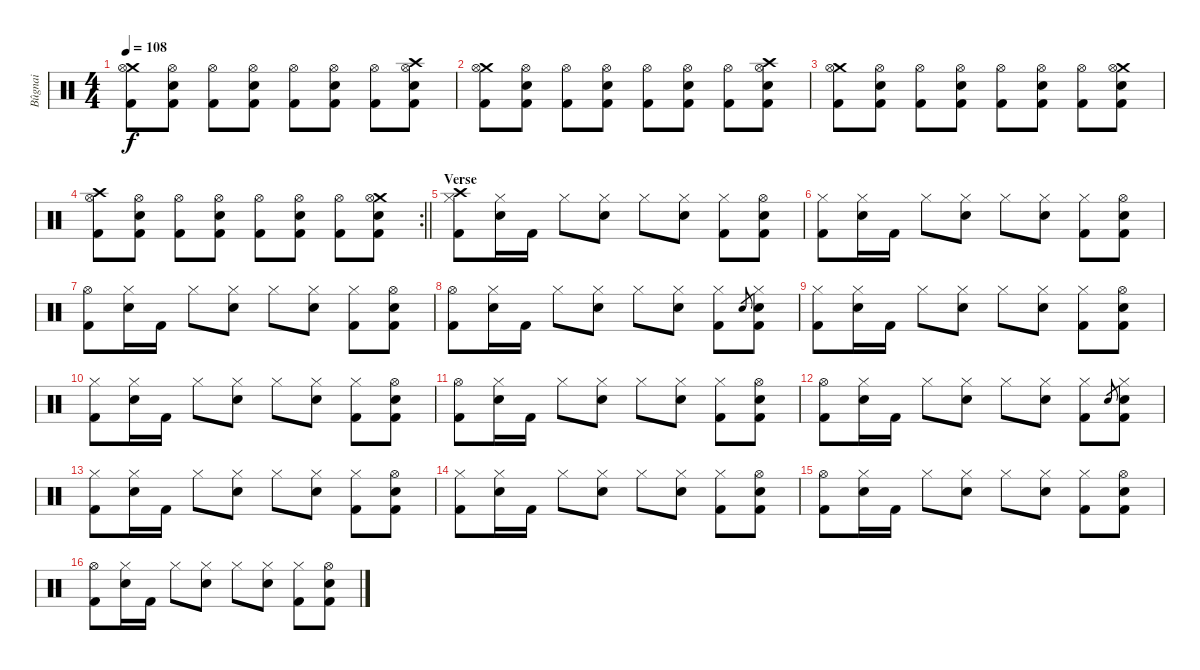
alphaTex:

\track ("Bûgnai" "Bûgnai") {instrument percussion}
\staff {score}
\articulation defaults
\ts (4 4)
\tempo 108
\clef neutral
\ks c
("Crash medium (hit)" "Hi-Hat (open)" "Kick (hit) 2").8{dy f} ("Hi-Hat (open)" "Snare (hit) 2" "Kick (hit) 2").8 ("Hi-Hat (open)" "Kick (hit) 2").8 ("Hi-Hat (open)" "Snare (hit) 2" "Kick (hit) 2").8 ("Hi-Hat (open)" "Kick (hit) 2").8 ("Hi-Hat (open)" "Snare (hit) 2" "Kick (hit) 2").8 ("Hi-Hat (open)" "Kick (hit) 2").8 ("Crash high (hit)" "Hi-Hat (open)" "Snare (hit) 2" "Kick (hit) 2").8 |
("Crash medium (hit)" "Hi-Hat (open)" "Kick (hit) 2").8 ("Hi-Hat (open)" "Snare (hit) 2" "Kick (hit) 2").8 ("Hi-Hat (open)" "Kick (hit) 2").8 ("Hi-Hat (open)" "Snare (hit) 2" "Kick (hit) 2").8 ("Hi-Hat (open)" "Kick (hit) 2").8 ("Hi-Hat (open)" "Snare (hit) 2" "Kick (hit) 2").8 ("Hi-Hat (open)" "Kick (hit) 2").8 ("Crash high (hit)" "Hi-Hat (open)" "Snare (hit) 2" "Kick (hit) 2").8 |
("Crash medium (hit)" "Hi-Hat (open)" "Kick (hit) 2").8 ("Hi-Hat (open)" "Snare (hit) 2" "Kick (hit) 2").8 ("Hi-Hat (open)" "Kick (hit) 2").8 ("Hi-Hat (open)" "Snare (hit) 2" "Kick (hit) 2").8 ("Hi-Hat (open)" "Kick (hit) 2").8 ("Hi-Hat (open)" "Snare (hit) 2" "Kick (hit) 2").8 ("Hi-Hat (open)" "Kick (hit) 2").8 ("Crash medium (hit)" "Hi-Hat (open)" "Snare (hit) 2" "Kick (hit) 2").8 |
\rc 2
\barLineRight lightlight
("Crash high (hit)" "Hi-Hat (open)" "Kick (hit) 2").8 ("Hi-Hat (open)" "Snare (hit) 2" "Kick (hit) 2").8 ("Hi-Hat (open)" "Kick (hit) 2").8 ("Hi-Hat (open)" "Snare (hit) 2" "Kick (hit) 2").8 ("Hi-Hat (open)" "Kick (hit) 2").8 ("Hi-Hat (open)" "Snare (hit) 2" "Kick (hit) 2").8 ("Hi-Hat (open)" "Kick (hit) 2").8 ("Crash medium (hit)" "Hi-Hat (open)" "Snare (hit) 2" "Kick (hit) 2").8 |
\section ("" "Verse")
("Crash high (hit)" "Hi-Hat (closed)" "Kick (hit) 2").8 ("Hi-Hat (closed)" "Snare (hit) 2").16 "Kick (hit) 2".16 "Hi-Hat (closed)".8 ("Hi-Hat (closed)" "Snare (hit) 2").8 "Hi-Hat (closed)".8 ("Hi-Hat (closed)" "Snare (hit) 2").8 ("Hi-Hat (closed)" "Kick (hit) 2").8 ("Hi-Hat (open)" "Snare (hit) 2" "Kick (hit) 2").8 |
("Hi-Hat (closed)" "Kick (hit) 2").8 ("Hi-Hat (closed)" "Snare (hit) 2").16 "Kick (hit) 2".16 "Hi-Hat (closed)".8 ("Hi-Hat (closed)" "Snare (hit) 2").8 "Hi-Hat (closed)".8 ("Hi-Hat (closed)" "Snare (hit) 2").8 ("Hi-Hat (closed)" "Kick (hit) 2").8 ("Hi-Hat (open)" "Snare (hit) 2" "Kick (hit) 2").8 |
("Hi-Hat (open)" "Kick (hit) 2").8 ("Hi-Hat (closed)" "Snare (hit) 2").16 "Kick (hit) 2".16 "Hi-Hat (closed)".8 ("Hi-Hat (closed)" "Snare (hit) 2").8 "Hi-Hat (closed)".8 ("Hi-Hat (closed)" "Snare (hit) 2").8 ("Hi-Hat (closed)" "Kick (hit) 2").8 ("Hi-Hat (open)" "Snare (hit) 2" "Kick (hit) 2").8 |
("Hi-Hat (open)" "Kick (hit) 2").8 ("Hi-Hat (closed)" "Snare (hit) 2").16 "Kick (hit) 2".16 "Hi-Hat (closed)".8 ("Hi-Hat (closed)" "Snare (hit) 2").8 "Hi-Hat (closed)".8 ("Hi-Hat (closed)" "Snare (hit) 2").8 ("Hi-Hat (closed)" "Kick (hit) 2").8 "Snare (hit) 2".8{gr} ("Hi-Hat (closed)" "Snare (hit) 2" "Kick (hit) 2").8 |
("Hi-Hat (closed)" "Kick (hit) 2").8 ("Hi-Hat (closed)" "Snare (hit) 2").16 "Kick (hit) 2".16 "Hi-Hat (closed)".8 ("Hi-Hat (closed)" "Snare (hit) 2").8 "Hi-Hat (closed)".8 ("Hi-Hat (closed)" "Snare (hit) 2").8 ("Hi-Hat (closed)" "Kick (hit) 2").8 ("Hi-Hat (open)" "Snare (hit) 2" "Kick (hit) 2").8 |
("Hi-Hat (closed)" "Kick (hit) 2").8 ("Hi-Hat (closed)" "Snare (hit) 2").16 "Kick (hit) 2".16 "Hi-Hat (closed)".8 ("Hi-Hat (closed)" "Snare (hit) 2").8 "Hi-Hat (closed)".8 ("Hi-Hat (closed)" "Snare (hit) 2").8 ("Hi-Hat (closed)" "Kick (hit) 2").8 ("Hi-Hat (open)" "Snare (hit) 2" "Kick (hit) 2").8 |
("Hi-Hat (open)" "Kick (hit) 2").8 ("Hi-Hat (closed)" "Snare (hit) 2").16 "Kick (hit) 2".16 "Hi-Hat (closed)".8 ("Hi-Hat (closed)" "Snare (hit) 2").8 "Hi-Hat (closed)".8 ("Hi-Hat (closed)" "Snare (hit) 2").8 ("Hi-Hat (closed)" "Kick (hit) 2").8 ("Hi-Hat (open)" "Snare (hit) 2" "Kick (hit) 2").8 |
("Hi-Hat (open)" "Kick (hit) 2").8 ("Hi-Hat (closed)" "Snare (hit) 2").16 "Kick (hit) 2".16 "Hi-Hat (closed)".8 ("Hi-Hat (closed)" "Snare (hit) 2").8 "Hi-Hat (closed)".8 ("Hi-Hat (closed)" "Snare (hit) 2").8 ("Hi-Hat (closed)" "Kick (hit) 2").8 "Snare (hit) 2".8{gr} ("Hi-Hat (closed)" "Snare (hit) 2" "Kick (hit) 2").8 |
("Hi-Hat (closed)" "Kick (hit) 2").8 ("Hi-Hat (closed)" "Snare (hit) 2").16 "Kick (hit) 2".16 "Hi-Hat (closed)".8 ("Hi-Hat (closed)" "Snare (hit) 2").8 "Hi-Hat (closed)".8 ("Hi-Hat (closed)" "Snare (hit) 2").8 ("Hi-Hat (closed)" "Kick (hit) 2").8 ("Hi-Hat (open)" "Snare (hit) 2" "Kick (hit) 2").8 |
("Hi-Hat (closed)" "Kick (hit) 2").8 ("Hi-Hat (closed)" "Snare (hit) 2").16 "Kick (hit) 2".16 "Hi-Hat (closed)".8 ("Hi-Hat (closed)" "Snare (hit) 2").8 "Hi-Hat (closed)".8 ("Hi-Hat (closed)" "Snare (hit) 2").8 ("Hi-Hat (closed)" "Kick (hit) 2").8 ("Hi-Hat (open)" "Snare (hit) 2" "Kick (hit) 2").8 |
("Hi-Hat (open)" "Kick (hit) 2").8 ("Hi-Hat (closed)" "Snare (hit) 2").16 "Kick (hit) 2".16 "Hi-Hat (closed)".8 ("Hi-Hat (closed)" "Snare (hit) 2").8 "Hi-Hat (closed)".8 ("Hi-Hat (closed)" "Snare (hit) 2").8 ("Hi-Hat (closed)" "Kick (hit) 2").8 ("Hi-Hat (open)" "Snare (hit) 2" "Kick (hit) 2").8 |
("Hi-Hat (open)" "Kick (hit) 2").8 ("Hi-Hat (closed)" "Snare (hit) 2").16 "Kick (hit) 2".16 "Hi-Hat (closed)".8 ("Hi-Hat (closed)" "Snare (hit) 2").8 "Hi-Hat (closed)".8 ("Hi-Hat (closed)" "Snare (hit) 2").8 ("Hi-Hat (closed)" "Kick (hit) 2").8 ("Hi-Hat (open)" "Snare (hit) 2" "Kick (hit) 2").8
